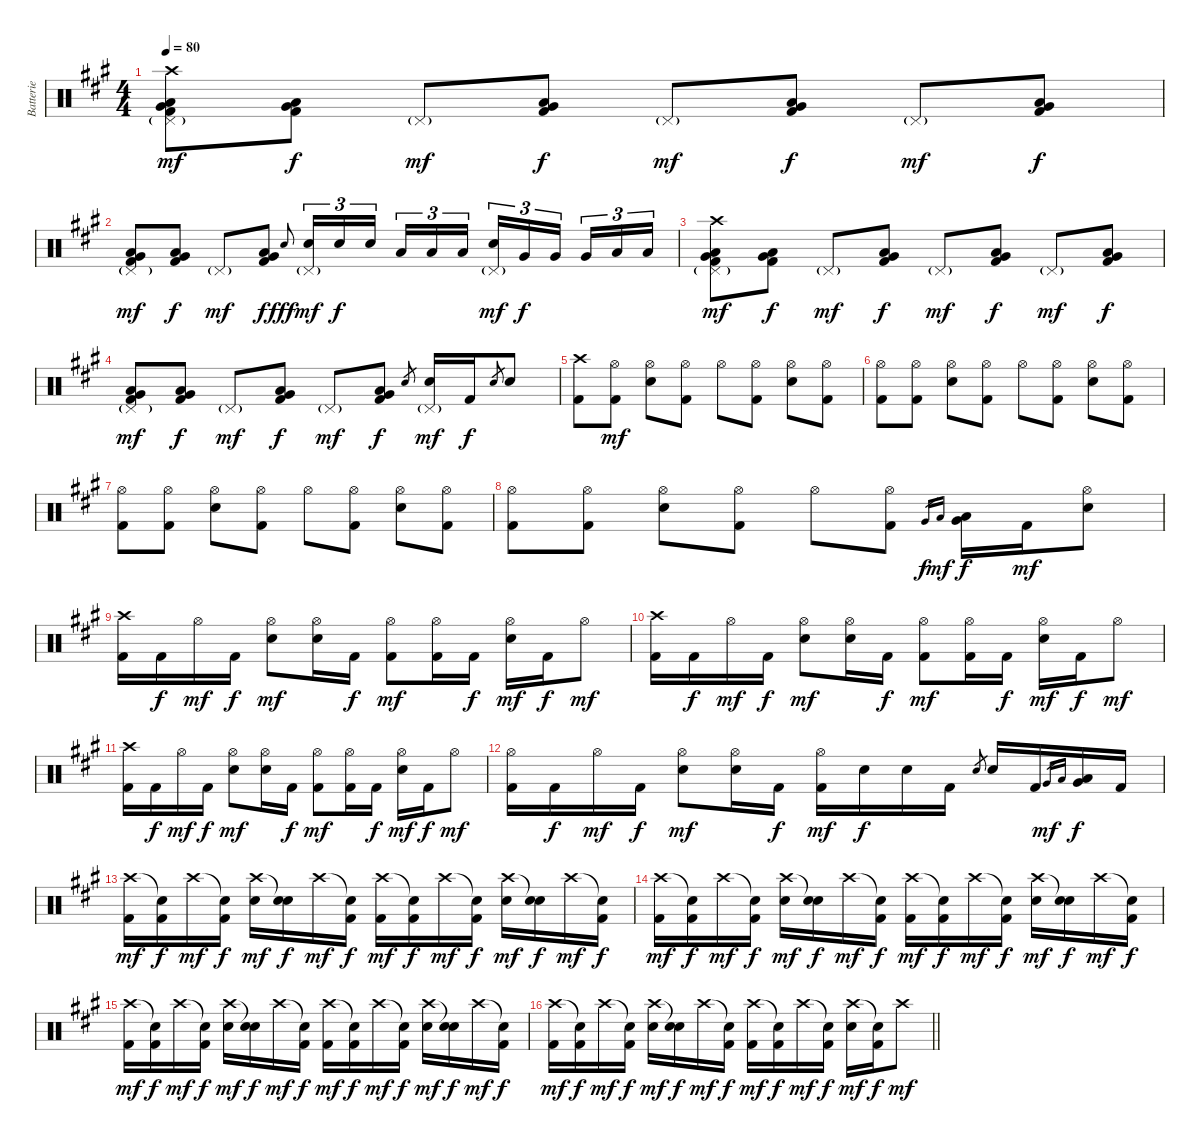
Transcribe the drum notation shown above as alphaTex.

\track ("Batterie" "Batterie") {instrument percussion}
\staff {score}
\articulation defaults
\ts (4 4)
\tempo 80
\clef neutral
\ks a
("Crash high (hit)" "Pedal Hi-Hat (hit)"{g} "Low Floor Tom (hit)" "Very Low Tom (hit)" "Kick (hit) 2").8{dy mf} ("Low Floor Tom (hit)" "Very Low Tom (hit)" "Kick (hit) 2").8{dy f} "Pedal Hi-Hat (hit)"{g}.8{dy mf} ("Low Floor Tom (hit)" "Very Low Tom (hit)" "Kick (hit) 2").8{dy f} "Pedal Hi-Hat (hit)"{g}.8{dy mf} ("Low Floor Tom (hit)" "Very Low Tom (hit)" "Kick (hit) 2").8{dy f} "Pedal Hi-Hat (hit)"{g}.8{dy mf} ("Low Floor Tom (hit)" "Very Low Tom (hit)" "Kick (hit) 2").8{dy f} |
("Pedal Hi-Hat (hit)"{g} "Low Floor Tom (hit)" "Very Low Tom (hit)" "Kick (hit) 2").8{dy mf} ("Low Floor Tom (hit)" "Very Low Tom (hit)" "Kick (hit) 2").8{dy f} "Pedal Hi-Hat (hit)"{g}.8{dy mf} ("Low Floor Tom (hit)" "Very Low Tom (hit)" "Kick (hit) 2").8{dy f} "Electric Snare (hit)".8{gr onbeat dy fff} ("Pedal Hi-Hat (hit)"{g} "Electric Snare (hit)").16{tu (3 2) dy mf} "Electric Snare (hit)".16{tu (3 2) dy f} "Electric Snare (hit)".16{tu (3 2) beam splitsecondary} "Low Tom (hit)".16{tu (3 2)} "Low Tom (hit)".16{tu (3 2)} "Low Tom (hit)".16{tu (3 2)} ("Pedal Hi-Hat (hit)"{g} "Electric Snare (hit)").16{tu (3 2) dy mf} "Very Low Tom (hit)".16{tu (3 2) dy f} "Very Low Tom (hit)".16{tu (3 2) beam splitsecondary} "Very Low Tom (hit)".16{tu (3 2)} "Low Floor Tom (hit)".16{tu (3 2)} "Low Floor Tom (hit)".16{tu (3 2)} |
("Crash high (hit)" "Pedal Hi-Hat (hit)"{g} "Low Floor Tom (hit)" "Very Low Tom (hit)" "Kick (hit) 2").8{dy mf} ("Low Floor Tom (hit)" "Very Low Tom (hit)" "Kick (hit) 2").8{dy f} "Pedal Hi-Hat (hit)"{g}.8{dy mf} ("Low Floor Tom (hit)" "Very Low Tom (hit)" "Kick (hit) 2").8{dy f} "Pedal Hi-Hat (hit)"{g}.8{dy mf} ("Low Floor Tom (hit)" "Very Low Tom (hit)" "Kick (hit) 2").8{dy f} "Pedal Hi-Hat (hit)"{g}.8{dy mf} ("Low Floor Tom (hit)" "Very Low Tom (hit)" "Kick (hit) 2").8{dy f} |
("Pedal Hi-Hat (hit)"{g} "Low Floor Tom (hit)" "Very Low Tom (hit)" "Kick (hit) 2").8{dy mf} ("Low Floor Tom (hit)" "Very Low Tom (hit)" "Kick (hit) 2").8{dy f} "Pedal Hi-Hat (hit)"{g}.8{dy mf} ("Low Floor Tom (hit)" "Very Low Tom (hit)" "Kick (hit) 2").8{dy f} "Pedal Hi-Hat (hit)"{g}.8{dy mf} ("Low Floor Tom (hit)" "Very Low Tom (hit)" "Kick (hit) 2").8{dy f} "Electric Snare (hit)".8{gr} ("Pedal Hi-Hat (hit)"{g} "Electric Snare (hit)").16{dy mf} "Kick (hit) 2".16{dy f} "Electric Snare (hit)".8{gr} "Electric Snare (hit)".8 |
("Crash high (hit)" "Kick (hit) 2").8 ("Hi-Hat (open)" "Kick (hit) 2").8{dy mf} ("Hi-Hat (open)" "Electric Snare (hit)").8 ("Hi-Hat (open)" "Kick (hit) 2").8 "Hi-Hat (open)".8 ("Hi-Hat (open)" "Kick (hit) 2").8 ("Hi-Hat (open)" "Electric Snare (hit)").8 ("Hi-Hat (open)" "Kick (hit) 2").8 |
("Hi-Hat (open)" "Kick (hit) 2").8 ("Hi-Hat (open)" "Kick (hit) 2").8 ("Hi-Hat (open)" "Electric Snare (hit)").8 ("Hi-Hat (open)" "Kick (hit) 2").8 "Hi-Hat (open)".8 ("Hi-Hat (open)" "Kick (hit) 2").8 ("Hi-Hat (open)" "Electric Snare (hit)").8 ("Hi-Hat (open)" "Kick (hit) 2").8 |
("Hi-Hat (open)" "Kick (hit) 2").8 ("Hi-Hat (open)" "Kick (hit) 2").8 ("Hi-Hat (open)" "Electric Snare (hit)").8 ("Hi-Hat (open)" "Kick (hit) 2").8 "Hi-Hat (open)".8 ("Hi-Hat (open)" "Kick (hit) 2").8 ("Hi-Hat (open)" "Electric Snare (hit)").8 ("Hi-Hat (open)" "Kick (hit) 2").8 |
("Hi-Hat (open)" "Kick (hit) 2").8 ("Hi-Hat (open)" "Kick (hit) 2").8 ("Hi-Hat (open)" "Electric Snare (hit)").8 ("Hi-Hat (open)" "Kick (hit) 2").8 "Hi-Hat (open)".8 ("Hi-Hat (open)" "Kick (hit) 2").8 "Very Low Tom (hit)".16{gr dy f} "Low Floor Tom (hit)".16{gr dy mf} ("Very Low Tom (hit)" "Low Floor Tom (hit)").16{dy f} "Kick (hit) 2".16{dy mf} ("Hi-Hat (open)" "Electric Snare (hit)").8 |
("Crash high (hit)" "Kick (hit) 2").16 "Kick (hit) 2".16{dy f} "Hi-Hat (open)".16{dy mf} "Kick (hit) 2".16{dy f} ("Hi-Hat (open)" "Electric Snare (hit)").8{dy mf} ("Hi-Hat (open)" "Electric Snare (hit)").16 "Kick (hit) 2".16{dy f} ("Hi-Hat (open)" "Kick (hit) 2").8{dy mf} ("Hi-Hat (open)" "Kick (hit) 2").16 "Kick (hit) 2".16{dy f} ("Hi-Hat (open)" "Electric Snare (hit)").16{dy mf} "Kick (hit) 2".16{dy f} "Hi-Hat (open)".8{dy mf} |
("Crash high (hit)" "Kick (hit) 2").16 "Kick (hit) 2".16{dy f} "Hi-Hat (open)".16{dy mf} "Kick (hit) 2".16{dy f} ("Hi-Hat (open)" "Electric Snare (hit)").8{dy mf} ("Hi-Hat (open)" "Electric Snare (hit)").16 "Kick (hit) 2".16{dy f} ("Hi-Hat (open)" "Kick (hit) 2").8{dy mf} ("Hi-Hat (open)" "Kick (hit) 2").16 "Kick (hit) 2".16{dy f} ("Hi-Hat (open)" "Electric Snare (hit)").16{dy mf} "Kick (hit) 2".16{dy f} "Hi-Hat (open)".8{dy mf} |
("Crash high (hit)" "Kick (hit) 2").16 "Kick (hit) 2".16{dy f} "Hi-Hat (open)".16{dy mf} "Kick (hit) 2".16{dy f} ("Hi-Hat (open)" "Electric Snare (hit)").8{dy mf} ("Hi-Hat (open)" "Electric Snare (hit)").16 "Kick (hit) 2".16{dy f} ("Hi-Hat (open)" "Kick (hit) 2").8{dy mf} ("Hi-Hat (open)" "Kick (hit) 2").16 "Kick (hit) 2".16{dy f} ("Hi-Hat (open)" "Electric Snare (hit)").16{dy mf} "Kick (hit) 2".16{dy f} "Hi-Hat (open)".8{dy mf} |
("Hi-Hat (open)" "Kick (hit) 2").16 "Kick (hit) 2".16{dy f} "Hi-Hat (open)".16{dy mf} "Kick (hit) 2".16{dy f} ("Hi-Hat (open)" "Electric Snare (hit)").8{dy mf} ("Hi-Hat (open)" "Electric Snare (hit)").16 "Kick (hit) 2".16{dy f} ("Hi-Hat (open)" "Kick (hit) 2").16{dy mf} "Electric Snare (hit)".16{dy f} "Electric Snare (hit)".16 "Kick (hit) 2".16 "Electric Snare (hit)".8{gr} "Electric Snare (hit)".16 "Kick (hit) 2".16 "Very Low Tom (hit)".16{gr dy mf} "Low Floor Tom (hit)".16{gr} ("Very Low Tom (hit)" "Low Floor Tom (hit)").16{dy f} "Kick (hit) 2".16 |
("Crash high (hit)" "Kick (hit) 2").16{dy mf} ("Snare (hit)"{t} "Kick (hit) 2").16{dy f} "Crash high (hit)".16{dy mf} ("Snare (hit)"{t} "Kick (hit) 2").16{dy f} ("Crash high (hit)" "Electric Snare (hit)").16{dy mf} ("Snare (hit)"{t} "Electric Snare (hit)").16{dy f} "Crash high (hit)".16{dy mf} ("Snare (hit)"{t} "Kick (hit) 2").16{dy f} ("Crash high (hit)" "Kick (hit) 2").16{dy mf} ("Snare (hit)"{t} "Kick (hit) 2").16{dy f} "Crash high (hit)".16{dy mf} ("Snare (hit)"{t} "Kick (hit) 2").16{dy f} ("Crash high (hit)" "Electric Snare (hit)").16{dy mf} ("Snare (hit)"{t} "Electric Snare (hit)").16{dy f} "Crash high (hit)".16{dy mf} ("Snare (hit)"{t} "Kick (hit) 2").16{dy f} |
("Crash high (hit)" "Kick (hit) 2").16{dy mf} ("Snare (hit)"{t} "Kick (hit) 2").16{dy f} "Crash high (hit)".16{dy mf} ("Snare (hit)"{t} "Kick (hit) 2").16{dy f} ("Crash high (hit)" "Electric Snare (hit)").16{dy mf} ("Snare (hit)"{t} "Electric Snare (hit)").16{dy f} "Crash high (hit)".16{dy mf} ("Snare (hit)"{t} "Kick (hit) 2").16{dy f} ("Crash high (hit)" "Kick (hit) 2").16{dy mf} ("Snare (hit)"{t} "Kick (hit) 2").16{dy f} "Crash high (hit)".16{dy mf} ("Snare (hit)"{t} "Kick (hit) 2").16{dy f} ("Crash high (hit)" "Electric Snare (hit)").16{dy mf} ("Snare (hit)"{t} "Electric Snare (hit)").16{dy f} "Crash high (hit)".16{dy mf} ("Snare (hit)"{t} "Kick (hit) 2").16{dy f} |
("Crash high (hit)" "Kick (hit) 2").16{dy mf} ("Snare (hit)"{t} "Kick (hit) 2").16{dy f} "Crash high (hit)".16{dy mf} ("Snare (hit)"{t} "Kick (hit) 2").16{dy f} ("Crash high (hit)" "Electric Snare (hit)").16{dy mf} ("Snare (hit)"{t} "Electric Snare (hit)").16{dy f} "Crash high (hit)".16{dy mf} ("Snare (hit)"{t} "Kick (hit) 2").16{dy f} ("Crash high (hit)" "Kick (hit) 2").16{dy mf} ("Snare (hit)"{t} "Kick (hit) 2").16{dy f} "Crash high (hit)".16{dy mf} ("Snare (hit)"{t} "Kick (hit) 2").16{dy f} ("Crash high (hit)" "Electric Snare (hit)").16{dy mf} ("Snare (hit)"{t} "Electric Snare (hit)").16{dy f} "Crash high (hit)".16{dy mf} ("Snare (hit)"{t} "Kick (hit) 2").16{dy f} |
\barLineRight lightlight
("Crash high (hit)" "Kick (hit) 2").16{dy mf} ("Snare (hit)"{t} "Kick (hit) 2").16{dy f} "Crash high (hit)".16{dy mf} ("Snare (hit)"{t} "Kick (hit) 2").16{dy f} ("Crash high (hit)" "Electric Snare (hit)").16{dy mf} ("Snare (hit)"{t} "Electric Snare (hit)").16{dy f} "Crash high (hit)".16{dy mf} ("Snare (hit)"{t} "Kick (hit) 2").16{dy f} ("Crash high (hit)" "Kick (hit) 2").16{dy mf} ("Snare (hit)"{t} "Kick (hit) 2").16{dy f} "Crash high (hit)".16{dy mf} ("Snare (hit)"{t} "Kick (hit) 2").16{dy f} ("Crash high (hit)" "Electric Snare (hit)").16{dy mf} ("Snare (hit)"{t} "Kick (hit) 2").16{dy f} "Crash high (hit)".8{dy mf}
